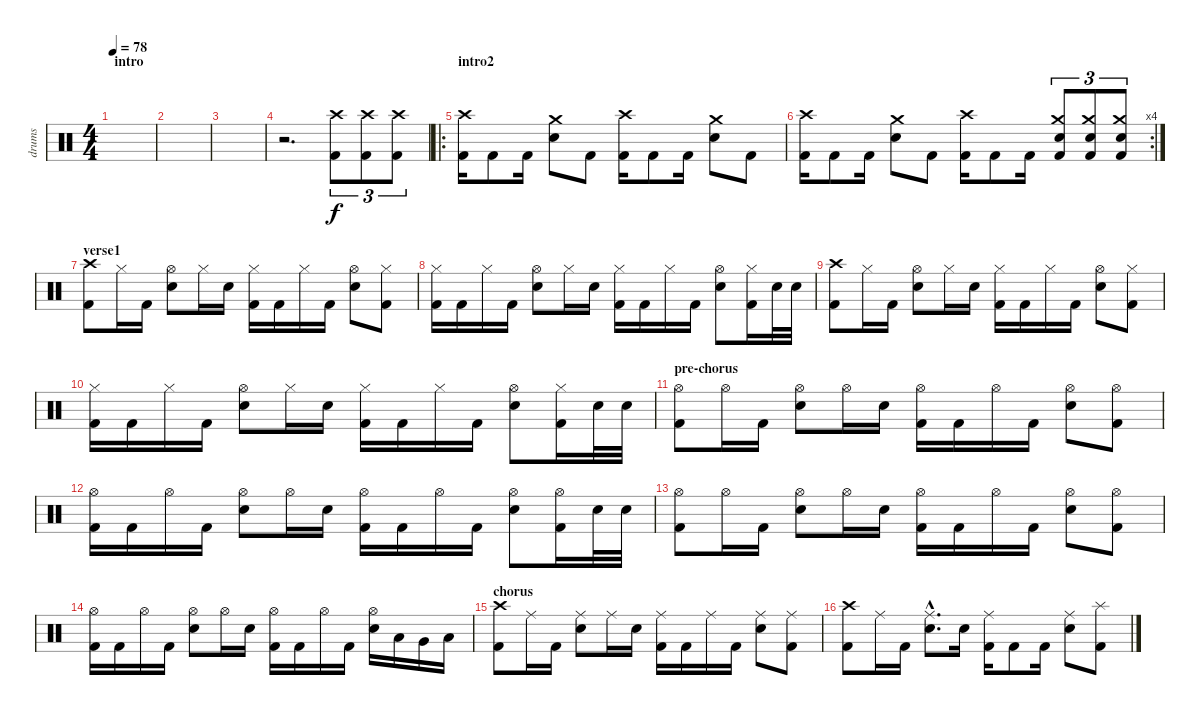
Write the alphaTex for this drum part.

\track ("drums" "drums") {instrument percussion}
\staff {score}
\articulation defaults
\ts (4 4)
\section ("" "intro")
\tempo 78
\clef neutral
\ks c
|
|
|
r.2{d} ("Crash high (hit)" "Kick (hit) 2").8{tu (3 2)} ("Crash high (hit)" "Kick (hit) 2").8{tu (3 2)} ("Crash high (hit)" "Kick (hit) 2").8{tu (3 2)} |
\ro
\section ("" "intro2")
("Crash high (hit)" "Kick (hit) 2").16 "Kick (hit) 2".8 "Kick (hit) 2".16 ("Crash medium (hit)" "Electric Snare (hit)").8 "Kick (hit) 2".8 ("Crash high (hit)" "Kick (hit) 2").16 "Kick (hit) 2".8 "Kick (hit) 2".16 ("Crash medium (hit)" "Electric Snare (hit)").8 "Kick (hit) 2".8 |
\rc 4
("Crash high (hit)" "Kick (hit) 2").16 "Kick (hit) 2".8 "Kick (hit) 2".16 ("Crash medium (hit)" "Electric Snare (hit)").8 "Kick (hit) 2".8 ("Crash high (hit)" "Kick (hit) 2").16 "Kick (hit) 2".8 "Kick (hit) 2".16 ("Crash medium (hit)" "Electric Snare (hit)" "Kick (hit) 2").8{tu (3 2)} ("Crash medium (hit)" "Electric Snare (hit)" "Kick (hit) 2").8{tu (3 2)} ("Crash medium (hit)" "Electric Snare (hit)" "Kick (hit) 2").8{tu (3 2)} |
\section ("" "verse1")
("Crash high (hit)" "Kick (hit) 2").8 "Hi-Hat (closed)".16 "Kick (hit) 2".16 ("Hi-Hat (open)" "Electric Snare (hit)").8 "Hi-Hat (closed)".16 "Electric Snare (hit)".16 ("Hi-Hat (closed)" "Kick (hit) 2").16 "Kick (hit) 2".16 "Hi-Hat (closed)".16 "Kick (hit) 2".16 ("Hi-Hat (open)" "Electric Snare (hit)").8 ("Hi-Hat (closed)" "Kick (hit) 2").8 |
("Hi-Hat (closed)" "Kick (hit) 2").16 "Kick (hit) 2".16 "Hi-Hat (closed)".16 "Kick (hit) 2".16 ("Hi-Hat (open)" "Electric Snare (hit)").8 "Hi-Hat (closed)".16 "Electric Snare (hit)".16 ("Hi-Hat (closed)" "Kick (hit) 2").16 "Kick (hit) 2".16 "Hi-Hat (closed)".16 "Kick (hit) 2".16 ("Hi-Hat (open)" "Electric Snare (hit)").8 ("Hi-Hat (closed)" "Kick (hit) 2").16 "Electric Snare (hit)".32 "Electric Snare (hit)".32 |
("Crash high (hit)" "Kick (hit) 2").8 "Hi-Hat (closed)".16 "Kick (hit) 2".16 ("Hi-Hat (open)" "Electric Snare (hit)").8 "Hi-Hat (closed)".16 "Electric Snare (hit)".16 ("Hi-Hat (closed)" "Kick (hit) 2").16 "Kick (hit) 2".16 "Hi-Hat (closed)".16 "Kick (hit) 2".16 ("Hi-Hat (open)" "Electric Snare (hit)").8 ("Hi-Hat (closed)" "Kick (hit) 2").8 |
("Hi-Hat (closed)" "Kick (hit) 2").16 "Kick (hit) 2".16 "Hi-Hat (closed)".16 "Kick (hit) 2".16 ("Hi-Hat (open)" "Electric Snare (hit)").8 "Hi-Hat (closed)".16 "Electric Snare (hit)".16 ("Hi-Hat (closed)" "Kick (hit) 2").16 "Kick (hit) 2".16 "Hi-Hat (closed)".16 "Kick (hit) 2".16 ("Hi-Hat (open)" "Electric Snare (hit)").8 ("Hi-Hat (closed)" "Kick (hit) 2").16 "Electric Snare (hit)".32 "Electric Snare (hit)".32 |
\section ("" "pre-chorus")
("Hi-Hat (open)" "Kick (hit) 2").8 "Hi-Hat (open)".16 "Kick (hit) 2".16 ("Hi-Hat (open)" "Electric Snare (hit)").8 "Hi-Hat (open)".16 "Electric Snare (hit)".16 ("Hi-Hat (open)" "Kick (hit) 2").16 "Kick (hit) 2".16 "Hi-Hat (open)".16 "Kick (hit) 2".16 ("Hi-Hat (open)" "Electric Snare (hit)").8 ("Hi-Hat (open)" "Kick (hit) 2").8 |
("Hi-Hat (open)" "Kick (hit) 2").16 "Kick (hit) 2".16 "Hi-Hat (open)".16 "Kick (hit) 2".16 ("Hi-Hat (open)" "Electric Snare (hit)").8 "Hi-Hat (open)".16 "Electric Snare (hit)".16 ("Hi-Hat (open)" "Kick (hit) 2").16 "Kick (hit) 2".16 "Hi-Hat (open)".16 "Kick (hit) 2".16 ("Hi-Hat (open)" "Electric Snare (hit)").8 ("Hi-Hat (open)" "Kick (hit) 2").16 "Electric Snare (hit)".32 "Electric Snare (hit)".32 |
("Hi-Hat (open)" "Kick (hit) 2").8 "Hi-Hat (open)".16 "Kick (hit) 2".16 ("Hi-Hat (open)" "Electric Snare (hit)").8 "Hi-Hat (open)".16 "Electric Snare (hit)".16 ("Hi-Hat (open)" "Kick (hit) 2").16 "Kick (hit) 2".16 "Hi-Hat (open)".16 "Kick (hit) 2".16 ("Hi-Hat (open)" "Electric Snare (hit)").8 ("Hi-Hat (open)" "Kick (hit) 2").8 |
("Hi-Hat (open)" "Kick (hit) 2").16 "Kick (hit) 2".16 "Hi-Hat (open)".16 "Kick (hit) 2".16 ("Hi-Hat (open)" "Electric Snare (hit)").8 "Hi-Hat (open)".16 "Electric Snare (hit)".16 ("Hi-Hat (open)" "Kick (hit) 2").16 "Kick (hit) 2".16 "Hi-Hat (open)".16 "Kick (hit) 2".16 ("Hi-Hat (open)" "Electric Snare (hit)").16 "Low Tom (hit)".16 "Very Low Tom (hit)".16 "Low Floor Tom (hit)".16 |
\section ("" "chorus")
("Crash high (hit)" "Kick (hit) 2").8 "Ride (middle)".16 "Kick (hit) 2".16 ("Ride (middle)" "Electric Snare (hit)").8 "Ride (middle)".16 "Electric Snare (hit)".16 ("Ride (middle)" "Kick (hit) 2").16 "Kick (hit) 2".16 "Ride (middle)".16 "Kick (hit) 2".16 ("Ride (middle)" "Electric Snare (hit)").8 ("Ride (middle)" "Kick (hit) 2").8 |
("Crash high (hit)" "Kick (hit) 2").8 "Ride (middle)".16 "Kick (hit) 2".16 ("Ride (middle)"{hac} "Electric Snare (hit)"{hac}).8{d} "Electric Snare (hit)".16 ("Ride (middle)" "Kick (hit) 2").16 "Kick (hit) 2".8 "Kick (hit) 2".16 ("Ride (middle)" "Electric Snare (hit)").8 ("Splash (hit)" "Kick (hit) 2").8
